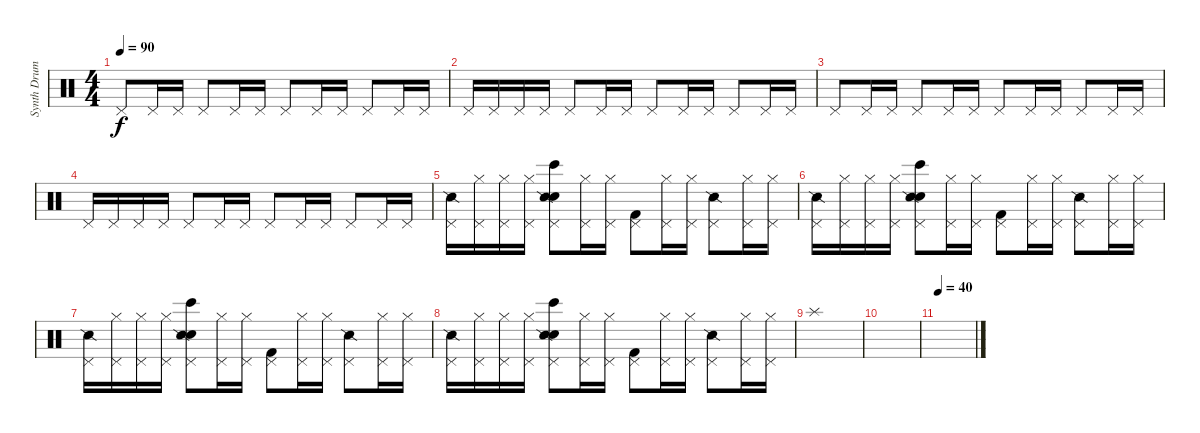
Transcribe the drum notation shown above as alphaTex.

\track ("Synth Drums" "Synth Drum") {instrument percussion}
\staff {score}
\articulation defaults
\ts (4 4)
\tempo 90
\clef neutral
\ks c "Pedal Hi-Hat (hit)".8{dy f} "Pedal Hi-Hat (hit)".16 "Pedal Hi-Hat (hit)".16 "Pedal Hi-Hat (hit)".8 "Pedal Hi-Hat (hit)".16 "Pedal Hi-Hat (hit)".16 "Pedal Hi-Hat (hit)".8 "Pedal Hi-Hat (hit)".16 "Pedal Hi-Hat (hit)".16 "Pedal Hi-Hat (hit)".8 "Pedal Hi-Hat (hit)".16 "Pedal Hi-Hat (hit)".16
|
"Pedal Hi-Hat (hit)".16 "Pedal Hi-Hat (hit)".16 "Pedal Hi-Hat (hit)".16 "Pedal Hi-Hat (hit)".16 "Pedal Hi-Hat (hit)".8 "Pedal Hi-Hat (hit)".16 "Pedal Hi-Hat (hit)".16 "Pedal Hi-Hat (hit)".8 "Pedal Hi-Hat (hit)".16 "Pedal Hi-Hat (hit)".16 "Pedal Hi-Hat (hit)".8 "Pedal Hi-Hat (hit)".16 "Pedal Hi-Hat (hit)".16 |
"Pedal Hi-Hat (hit)".8 "Pedal Hi-Hat (hit)".16 "Pedal Hi-Hat (hit)".16 "Pedal Hi-Hat (hit)".8 "Pedal Hi-Hat (hit)".16 "Pedal Hi-Hat (hit)".16 "Pedal Hi-Hat (hit)".8 "Pedal Hi-Hat (hit)".16 "Pedal Hi-Hat (hit)".16 "Pedal Hi-Hat (hit)".8 "Pedal Hi-Hat (hit)".16 "Pedal Hi-Hat (hit)".16 |
"Pedal Hi-Hat (hit)".16 "Pedal Hi-Hat (hit)".16 "Pedal Hi-Hat (hit)".16 "Pedal Hi-Hat (hit)".16 "Pedal Hi-Hat (hit)".8 "Pedal Hi-Hat (hit)".16 "Pedal Hi-Hat (hit)".16 "Pedal Hi-Hat (hit)".8 "Pedal Hi-Hat (hit)".16 "Pedal Hi-Hat (hit)".16 "Pedal Hi-Hat (hit)".8 "Pedal Hi-Hat (hit)".16 "Pedal Hi-Hat (hit)".16 |
("Pedal Hi-Hat (hit)" "Snare (side stick) 2").16{balance 7} ("Pedal Hi-Hat (hit)" "Hi-Hat (closed)").16 ("Pedal Hi-Hat (hit)" "Hi-Hat (closed)").16 ("Pedal Hi-Hat (hit)" "Hi-Hat (closed)").16 ("Pedal Hi-Hat (hit)" "Bongo High (hit)" "Hand Clap (hit)" "Snare (side stick) 2").8 ("Pedal Hi-Hat (hit)" "Hi-Hat (closed)").16 ("Pedal Hi-Hat (hit)" "Hi-Hat (closed)").16 ("Pedal Hi-Hat (hit)" "Kick (hit) 2").8 ("Pedal Hi-Hat (hit)" "Hi-Hat (closed)").16 ("Pedal Hi-Hat (hit)" "Hi-Hat (closed)").16 ("Pedal Hi-Hat (hit)" "Snare (side stick) 2").8 ("Pedal Hi-Hat (hit)" "Hi-Hat (closed)").16 ("Pedal Hi-Hat (hit)" "Hi-Hat (closed)").16 |
("Pedal Hi-Hat (hit)" "Snare (side stick) 2").16 ("Pedal Hi-Hat (hit)" "Hi-Hat (closed)").16 ("Pedal Hi-Hat (hit)" "Hi-Hat (closed)").16 ("Pedal Hi-Hat (hit)" "Hi-Hat (closed)").16 ("Pedal Hi-Hat (hit)" "Bongo High (hit)" "Hand Clap (hit)" "Snare (side stick) 2").8 ("Pedal Hi-Hat (hit)" "Hi-Hat (closed)").16 ("Pedal Hi-Hat (hit)" "Hi-Hat (closed)").16 ("Pedal Hi-Hat (hit)" "Kick (hit) 2").8 ("Pedal Hi-Hat (hit)" "Hi-Hat (closed)").16 ("Pedal Hi-Hat (hit)" "Hi-Hat (closed)").16 ("Pedal Hi-Hat (hit)" "Snare (side stick) 2").8 ("Pedal Hi-Hat (hit)" "Hi-Hat (closed)").16 ("Pedal Hi-Hat (hit)" "Hi-Hat (closed)").16 |
("Pedal Hi-Hat (hit)" "Snare (side stick) 2").16 ("Pedal Hi-Hat (hit)" "Hi-Hat (closed)").16 ("Pedal Hi-Hat (hit)" "Hi-Hat (closed)").16 ("Pedal Hi-Hat (hit)" "Hi-Hat (closed)").16 ("Pedal Hi-Hat (hit)" "Bongo High (hit)" "Hand Clap (hit)" "Snare (side stick) 2").8 ("Pedal Hi-Hat (hit)" "Hi-Hat (closed)").16 ("Pedal Hi-Hat (hit)" "Hi-Hat (closed)").16 ("Pedal Hi-Hat (hit)" "Kick (hit) 2").8 ("Pedal Hi-Hat (hit)" "Hi-Hat (closed)").16 ("Pedal Hi-Hat (hit)" "Hi-Hat (closed)").16 ("Pedal Hi-Hat (hit)" "Snare (side stick) 2").8 ("Pedal Hi-Hat (hit)" "Hi-Hat (closed)").16 ("Pedal Hi-Hat (hit)" "Hi-Hat (closed)").16 |
("Pedal Hi-Hat (hit)" "Snare (side stick) 2").16 ("Pedal Hi-Hat (hit)" "Hi-Hat (closed)").16 ("Pedal Hi-Hat (hit)" "Hi-Hat (closed)").16 ("Pedal Hi-Hat (hit)" "Hi-Hat (closed)").16 ("Pedal Hi-Hat (hit)" "Bongo High (hit)" "Hand Clap (hit)" "Snare (side stick) 2").8 ("Pedal Hi-Hat (hit)" "Hi-Hat (closed)").16 ("Pedal Hi-Hat (hit)" "Hi-Hat (closed)").16 ("Pedal Hi-Hat (hit)" "Kick (hit) 2").8 ("Pedal Hi-Hat (hit)" "Hi-Hat (closed)").16 ("Pedal Hi-Hat (hit)" "Hi-Hat (closed)").16 ("Pedal Hi-Hat (hit)" "Snare (side stick) 2").8 ("Pedal Hi-Hat (hit)" "Hi-Hat (closed)").16 ("Pedal Hi-Hat (hit)" "Hi-Hat (closed)").16 |
"Splash (hit)".1 |
|
\tempo 40
